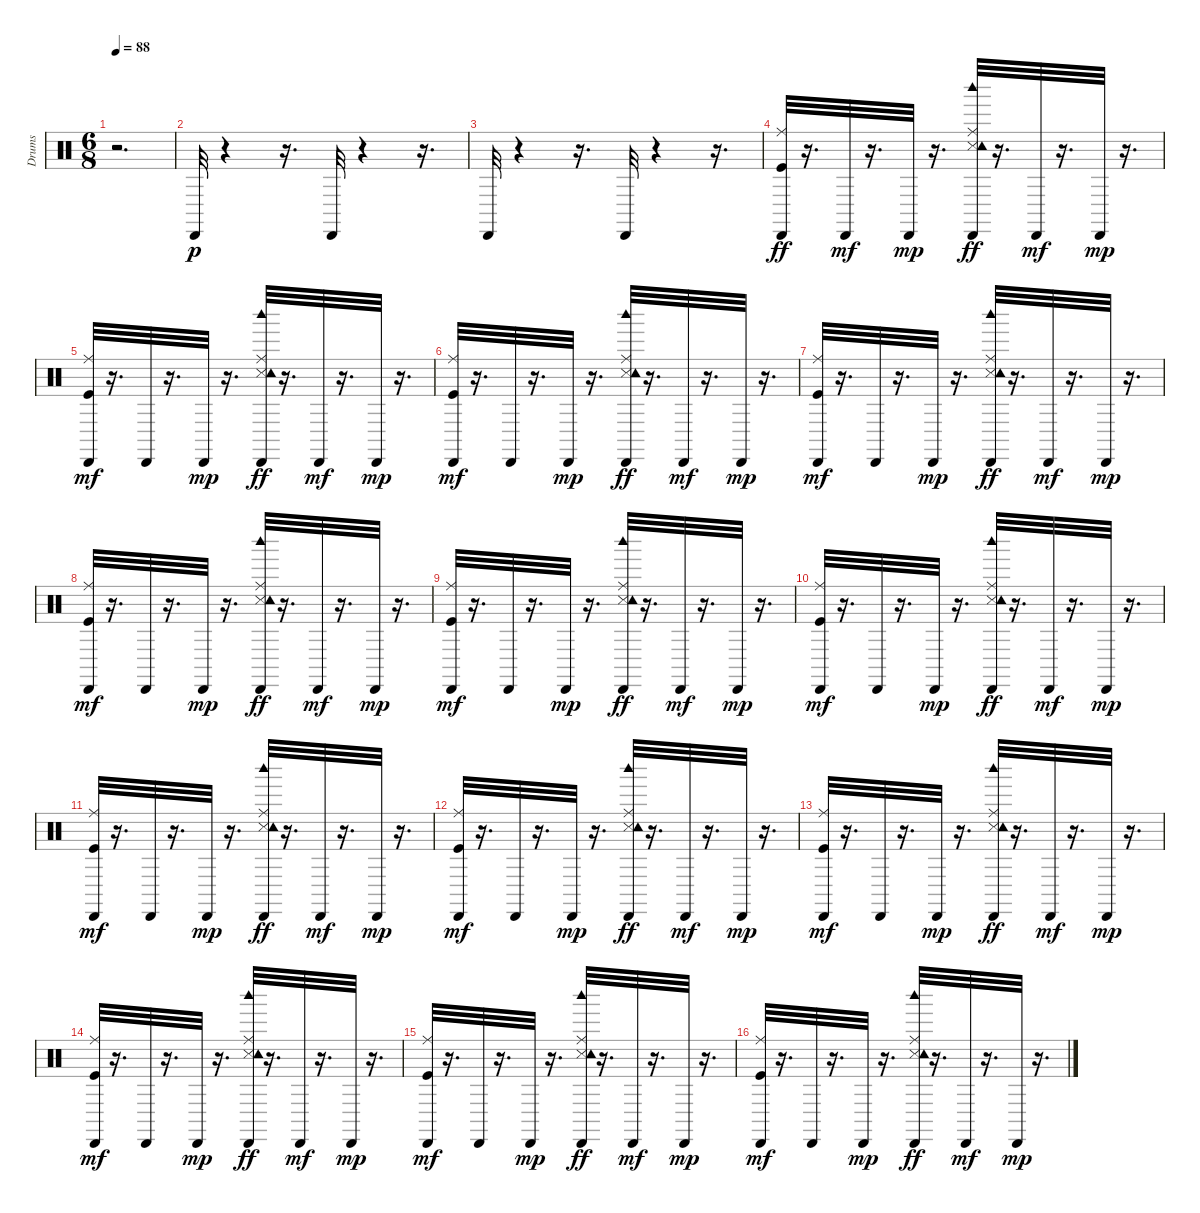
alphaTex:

\track ("Drums               " "Drums     ") {instrument percussion}
\staff {score}
\articulation defaults
\ts (6 8)
\tempo 88
\clef neutral
\ks c
r.2{d dy p} |
"Cabasa (hit)".32 r.4 r.16{d} "Cabasa (hit)".32 r.4 r.16{d} |
"Cabasa (hit)".32 r.4 r.16{d} "Cabasa (hit)".32 r.4 r.16{d} |
("Kick (hit)" "Ride (middle)" "Cabasa (hit)").32{dy ff} r.16{d} "Cabasa (hit)".32{dy mf} r.16{d} "Cabasa (hit)".32{dy mp} r.16{d} ("Snare (side stick) 3" "Ride (middle)" "Tambourine (hit)" "Cabasa (hit)" "Woodblock high (hit)").32{dy ff} r.16{d} "Cabasa (hit)".32{dy mf} r.16{d} "Cabasa (hit)".32{dy mp} r.16{d} |
("Kick (hit)" "Ride (middle)" "Cabasa (hit)").32{dy mf} r.16{d} "Cabasa (hit)".32 r.16{d} "Cabasa (hit)".32{dy mp} r.16{d} ("Snare (side stick) 3" "Ride (middle)" "Tambourine (hit)" "Cabasa (hit)" "Woodblock high (hit)").32{dy ff} r.16{d} "Cabasa (hit)".32{dy mf} r.16{d} "Cabasa (hit)".32{dy mp} r.16{d} |
("Kick (hit)" "Ride (middle)" "Cabasa (hit)").32{dy mf} r.16{d} "Cabasa (hit)".32 r.16{d} "Cabasa (hit)".32{dy mp} r.16{d} ("Snare (side stick) 3" "Ride (middle)" "Tambourine (hit)" "Cabasa (hit)" "Woodblock high (hit)").32{dy ff} r.16{d} "Cabasa (hit)".32{dy mf} r.16{d} "Cabasa (hit)".32{dy mp} r.16{d} |
("Kick (hit)" "Ride (middle)" "Cabasa (hit)").32{dy mf} r.16{d} "Cabasa (hit)".32 r.16{d} "Cabasa (hit)".32{dy mp} r.16{d} ("Snare (side stick) 3" "Ride (middle)" "Tambourine (hit)" "Cabasa (hit)" "Woodblock high (hit)").32{dy ff} r.16{d} "Cabasa (hit)".32{dy mf} r.16{d} "Cabasa (hit)".32{dy mp} r.16{d} |
("Kick (hit)" "Ride (middle)" "Cabasa (hit)").32{dy mf} r.16{d} "Cabasa (hit)".32 r.16{d} "Cabasa (hit)".32{dy mp} r.16{d} ("Snare (side stick) 3" "Ride (middle)" "Tambourine (hit)" "Cabasa (hit)" "Woodblock high (hit)").32{dy ff} r.16{d} "Cabasa (hit)".32{dy mf} r.16{d} "Cabasa (hit)".32{dy mp} r.16{d} |
("Kick (hit)" "Ride (middle)" "Cabasa (hit)").32{dy mf} r.16{d} "Cabasa (hit)".32 r.16{d} "Cabasa (hit)".32{dy mp} r.16{d} ("Snare (side stick) 3" "Ride (middle)" "Tambourine (hit)" "Cabasa (hit)" "Woodblock high (hit)").32{dy ff} r.16{d} "Cabasa (hit)".32{dy mf} r.16{d} "Cabasa (hit)".32{dy mp} r.16{d} |
("Kick (hit)" "Ride (middle)" "Cabasa (hit)").32{dy mf} r.16{d} "Cabasa (hit)".32 r.16{d} "Cabasa (hit)".32{dy mp} r.16{d} ("Snare (side stick) 3" "Ride (middle)" "Tambourine (hit)" "Cabasa (hit)" "Woodblock high (hit)").32{dy ff} r.16{d} "Cabasa (hit)".32{dy mf} r.16{d} "Cabasa (hit)".32{dy mp} r.16{d} |
("Kick (hit)" "Ride (middle)" "Cabasa (hit)").32{dy mf} r.16{d} "Cabasa (hit)".32 r.16{d} "Cabasa (hit)".32{dy mp} r.16{d} ("Snare (side stick) 3" "Ride (middle)" "Tambourine (hit)" "Cabasa (hit)" "Woodblock high (hit)").32{dy ff} r.16{d} "Cabasa (hit)".32{dy mf} r.16{d} "Cabasa (hit)".32{dy mp} r.16{d} |
("Kick (hit)" "Ride (middle)" "Cabasa (hit)").32{dy mf} r.16{d} "Cabasa (hit)".32 r.16{d} "Cabasa (hit)".32{dy mp} r.16{d} ("Snare (side stick) 3" "Ride (middle)" "Tambourine (hit)" "Cabasa (hit)" "Woodblock high (hit)").32{dy ff} r.16{d} "Cabasa (hit)".32{dy mf} r.16{d} "Cabasa (hit)".32{dy mp} r.16{d} |
("Kick (hit)" "Ride (middle)" "Cabasa (hit)").32{dy mf} r.16{d} "Cabasa (hit)".32 r.16{d} "Cabasa (hit)".32{dy mp} r.16{d} ("Snare (side stick) 3" "Ride (middle)" "Tambourine (hit)" "Cabasa (hit)" "Woodblock high (hit)").32{dy ff} r.16{d} "Cabasa (hit)".32{dy mf} r.16{d} "Cabasa (hit)".32{dy mp} r.16{d} |
("Kick (hit)" "Ride (middle)" "Cabasa (hit)").32{dy mf} r.16{d} "Cabasa (hit)".32 r.16{d} "Cabasa (hit)".32{dy mp} r.16{d} ("Snare (side stick) 3" "Ride (middle)" "Tambourine (hit)" "Cabasa (hit)" "Woodblock high (hit)").32{dy ff} r.16{d} "Cabasa (hit)".32{dy mf} r.16{d} "Cabasa (hit)".32{dy mp} r.16{d} |
("Kick (hit)" "Ride (middle)" "Cabasa (hit)").32{dy mf} r.16{d} "Cabasa (hit)".32 r.16{d} "Cabasa (hit)".32{dy mp} r.16{d} ("Snare (side stick) 3" "Ride (middle)" "Tambourine (hit)" "Cabasa (hit)" "Woodblock high (hit)").32{dy ff} r.16{d} "Cabasa (hit)".32{dy mf} r.16{d} "Cabasa (hit)".32{dy mp} r.16{d} |
("Kick (hit)" "Ride (middle)" "Cabasa (hit)").32{dy mf} r.16{d} "Cabasa (hit)".32 r.16{d} "Cabasa (hit)".32{dy mp} r.16{d} ("Snare (side stick) 3" "Ride (middle)" "Tambourine (hit)" "Cabasa (hit)" "Woodblock high (hit)").32{dy ff} r.16{d} "Cabasa (hit)".32{dy mf} r.16{d} "Cabasa (hit)".32{dy mp} r.16{d}
